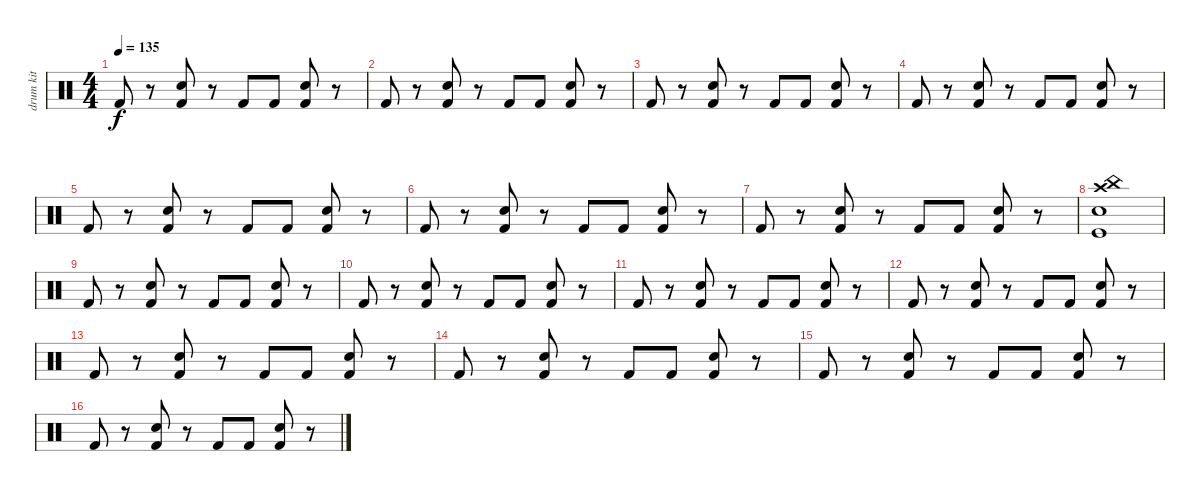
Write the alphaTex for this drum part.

\track ("drum kit" "drum kit") {instrument percussion}
\staff {score}
\articulation defaults
\ts (4 4)
\tempo 135
\clef neutral
\ks c "Kick (hit) 2".8{dy f}
r.8 ("Snare (hit) 2" "Kick (hit) 2").8 r.8 "Kick (hit) 2".8 "Kick (hit) 2".8 ("Snare (hit) 2" "Kick (hit) 2").8 r.8 |
"Kick (hit) 2".8 r.8 ("Snare (hit) 2" "Kick (hit) 2").8 r.8 "Kick (hit) 2".8 "Kick (hit) 2".8 ("Snare (hit) 2" "Kick (hit) 2").8 r.8 |
"Kick (hit) 2".8 r.8 ("Snare (hit) 2" "Kick (hit) 2").8 r.8 "Kick (hit) 2".8 "Kick (hit) 2".8 ("Snare (hit) 2" "Kick (hit) 2").8 r.8 |
"Kick (hit) 2".8 r.8 ("Snare (hit) 2" "Kick (hit) 2").8 r.8 "Kick (hit) 2".8 "Kick (hit) 2".8 ("Snare (hit) 2" "Kick (hit) 2").8 r.8 |
"Kick (hit) 2".8 r.8 ("Snare (hit) 2" "Kick (hit) 2").8 r.8 "Kick (hit) 2".8 "Kick (hit) 2".8 ("Snare (hit) 2" "Kick (hit) 2").8 r.8 |
"Kick (hit) 2".8 r.8 ("Snare (hit) 2" "Kick (hit) 2").8 r.8 "Kick (hit) 2".8 "Kick (hit) 2".8 ("Snare (hit) 2" "Kick (hit) 2").8 r.8 |
"Kick (hit) 2".8 r.8 ("Snare (hit) 2" "Kick (hit) 2").8 r.8 "Kick (hit) 2".8 "Kick (hit) 2".8 ("Snare (hit) 2" "Kick (hit) 2").8 r.8 |
("Snare (hit) 2" "Crash high (hit)" "China (hit)" "Kick (hit)").1 |
"Kick (hit) 2".8 r.8 ("Snare (hit) 2" "Kick (hit) 2").8 r.8 "Kick (hit) 2".8 "Kick (hit) 2".8 ("Snare (hit) 2" "Kick (hit) 2").8 r.8 |
"Kick (hit) 2".8 r.8 ("Snare (hit) 2" "Kick (hit) 2").8 r.8 "Kick (hit) 2".8 "Kick (hit) 2".8 ("Snare (hit) 2" "Kick (hit) 2").8 r.8 |
"Kick (hit) 2".8 r.8 ("Snare (hit) 2" "Kick (hit) 2").8 r.8 "Kick (hit) 2".8 "Kick (hit) 2".8 ("Snare (hit) 2" "Kick (hit) 2").8 r.8 |
"Kick (hit) 2".8 r.8 ("Snare (hit) 2" "Kick (hit) 2").8 r.8 "Kick (hit) 2".8 "Kick (hit) 2".8 ("Snare (hit) 2" "Kick (hit) 2").8 r.8 |
"Kick (hit) 2".8 r.8 ("Snare (hit) 2" "Kick (hit) 2").8 r.8 "Kick (hit) 2".8 "Kick (hit) 2".8 ("Snare (hit) 2" "Kick (hit) 2").8 r.8 |
"Kick (hit) 2".8 r.8 ("Snare (hit) 2" "Kick (hit) 2").8 r.8 "Kick (hit) 2".8 "Kick (hit) 2".8 ("Snare (hit) 2" "Kick (hit) 2").8 r.8 |
"Kick (hit) 2".8 r.8 ("Snare (hit) 2" "Kick (hit) 2").8 r.8 "Kick (hit) 2".8 "Kick (hit) 2".8 ("Snare (hit) 2" "Kick (hit) 2").8 r.8 |
"Kick (hit) 2".8 r.8 ("Snare (hit) 2" "Kick (hit) 2").8 r.8 "Kick (hit) 2".8 "Kick (hit) 2".8 ("Snare (hit) 2" "Kick (hit) 2").8 r.8
